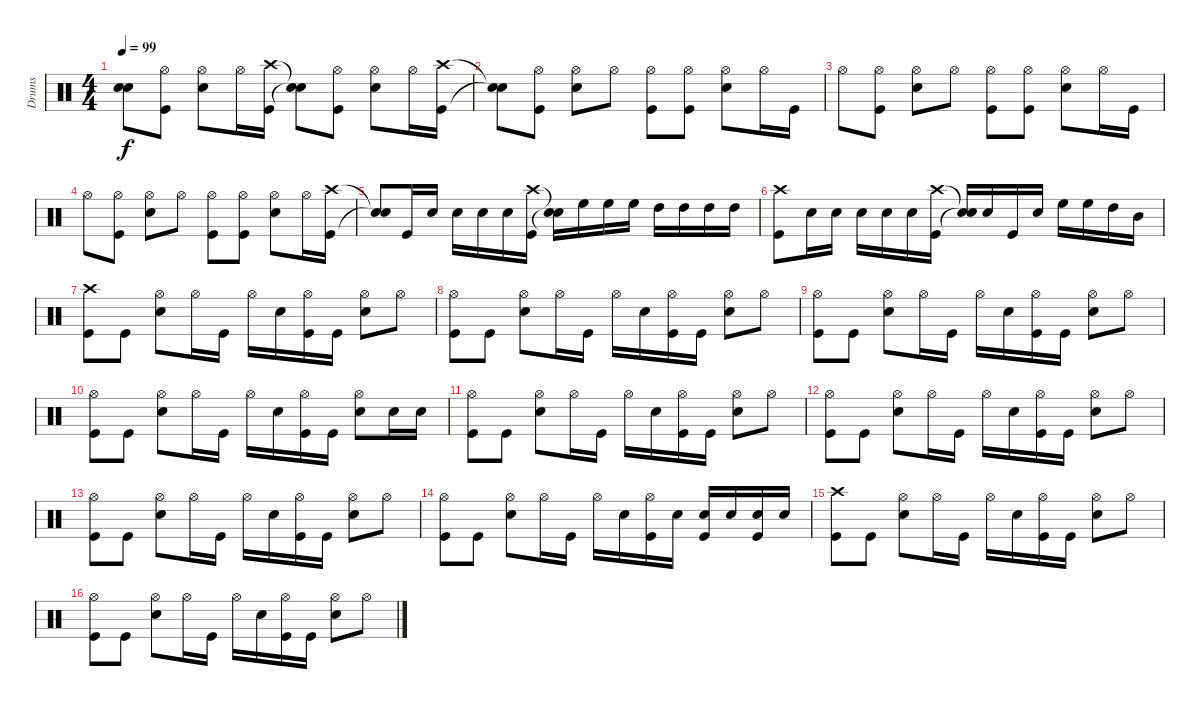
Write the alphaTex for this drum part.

\track ("Drums" "Drums") {instrument percussion}
\staff {score}
\articulation defaults
\ts (4 4)
\tempo 99
\clef neutral
\ks c
("Snare (hit)"{t} "Snare (hit)"{t}).8{dy f} ("Hi-Hat (open)" "Kick (hit)").8 ("Hi-Hat (open)" "Electric Snare (hit)").8 "Hi-Hat (open)".16 ("Crash high (hit)" "Kick (hit)").16 ("Snare (hit)"{t} "Snare (hit)"{t}).8 ("Hi-Hat (open)" "Kick (hit)").8 ("Hi-Hat (open)" "Electric Snare (hit)").8 "Hi-Hat (open)".16 ("Crash high (hit)" "Kick (hit)").16 |
("Snare (hit)"{t} "Snare (hit)"{t}).8 ("Hi-Hat (open)" "Kick (hit)").8 ("Hi-Hat (open)" "Electric Snare (hit)").8 "Hi-Hat (open)".8 ("Hi-Hat (open)" "Kick (hit)").8 ("Hi-Hat (open)" "Kick (hit)").8 ("Hi-Hat (open)" "Electric Snare (hit)").8 "Hi-Hat (open)".16 "Kick (hit)".16 |
"Hi-Hat (open)".8 ("Hi-Hat (open)" "Kick (hit)").8 ("Hi-Hat (open)" "Electric Snare (hit)").8 "Hi-Hat (open)".8 ("Hi-Hat (open)" "Kick (hit)").8 ("Hi-Hat (open)" "Kick (hit)").8 ("Hi-Hat (open)" "Electric Snare (hit)").8 "Hi-Hat (open)".16 "Kick (hit)".16 |
"Hi-Hat (open)".8 ("Hi-Hat (open)" "Kick (hit)").8 ("Hi-Hat (open)" "Electric Snare (hit)").8 "Hi-Hat (open)".8 ("Hi-Hat (open)" "Kick (hit)").8 ("Hi-Hat (open)" "Kick (hit)").8 ("Hi-Hat (open)" "Electric Snare (hit)").8 "Hi-Hat (open)".16 ("Crash high (hit)" "Kick (hit)").16 |
("Snare (hit)"{t} "Snare (hit)"{t}).8 "Kick (hit)".16 "Electric Snare (hit)".16 "Electric Snare (hit)".16 "Electric Snare (hit)".16 "Electric Snare (hit)".16 ("Crash high (hit)" "Kick (hit)").16 ("Snare (hit)"{t} "Snare (hit)"{t}).16 "High Floor Tom (hit)".16 "High Floor Tom (hit)".16 "High Floor Tom (hit)".16 "High Tom (hit)".16 "High Tom (hit)".16 "High Tom (hit)".16 "High Tom (hit)".16 |
("Crash high (hit)" "Kick (hit)").8 "Electric Snare (hit)".16 "Electric Snare (hit)".16 "Electric Snare (hit)".16 "Electric Snare (hit)".16 "Electric Snare (hit)".16 ("Crash high (hit)" "Kick (hit)").16 ("Snare (hit)"{t} "Snare (hit)"{t}).16 "Electric Snare (hit)".16 "Kick (hit)".16 "Electric Snare (hit)".16 "High Floor Tom (hit)".16 "High Floor Tom (hit)".16 "High Tom (hit)".16 "Mid Tom (hit)".16 |
("Crash high (hit)" "Kick (hit)").8 "Kick (hit)".8 ("Hi-Hat (open)" "Electric Snare (hit)").8 "Hi-Hat (open)".16 "Kick (hit)".16 "Hi-Hat (open)".16 "Electric Snare (hit)".16 ("Hi-Hat (open)" "Kick (hit)").16 "Kick (hit)".16 ("Hi-Hat (open)" "Electric Snare (hit)").8 "Hi-Hat (open)".8 |
("Hi-Hat (open)" "Kick (hit)").8 "Kick (hit)".8 ("Hi-Hat (open)" "Electric Snare (hit)").8 "Hi-Hat (open)".16 "Kick (hit)".16 "Hi-Hat (open)".16 "Electric Snare (hit)".16 ("Hi-Hat (open)" "Kick (hit)").16 "Kick (hit)".16 ("Hi-Hat (open)" "Electric Snare (hit)").8 "Hi-Hat (open)".8 |
("Hi-Hat (open)" "Kick (hit)").8 "Kick (hit)".8 ("Hi-Hat (open)" "Electric Snare (hit)").8 "Hi-Hat (open)".16 "Kick (hit)".16 "Hi-Hat (open)".16 "Electric Snare (hit)".16 ("Hi-Hat (open)" "Kick (hit)").16 "Kick (hit)".16 ("Hi-Hat (open)" "Electric Snare (hit)").8 "Hi-Hat (open)".8 |
("Hi-Hat (open)" "Kick (hit)").8 "Kick (hit)".8 ("Hi-Hat (open)" "Electric Snare (hit)").8 "Hi-Hat (open)".16 "Kick (hit)".16 "Hi-Hat (open)".16 "Electric Snare (hit)".16 ("Hi-Hat (open)" "Kick (hit)").16 "Kick (hit)".16 ("Hi-Hat (open)" "Electric Snare (hit)").8 "Electric Snare (hit)".16 "Electric Snare (hit)".16 |
("Hi-Hat (open)" "Kick (hit)").8 "Kick (hit)".8 ("Hi-Hat (open)" "Electric Snare (hit)").8 "Hi-Hat (open)".16 "Kick (hit)".16 "Hi-Hat (open)".16 "Electric Snare (hit)".16 ("Hi-Hat (open)" "Kick (hit)").16 "Kick (hit)".16 ("Hi-Hat (open)" "Electric Snare (hit)").8 "Hi-Hat (open)".8 |
("Hi-Hat (open)" "Kick (hit)").8 "Kick (hit)".8 ("Hi-Hat (open)" "Electric Snare (hit)").8 "Hi-Hat (open)".16 "Kick (hit)".16 "Hi-Hat (open)".16 "Electric Snare (hit)".16 ("Hi-Hat (open)" "Kick (hit)").16 "Kick (hit)".16 ("Hi-Hat (open)" "Electric Snare (hit)").8 "Hi-Hat (open)".8 |
("Hi-Hat (open)" "Kick (hit)").8 "Kick (hit)".8 ("Hi-Hat (open)" "Electric Snare (hit)").8 "Hi-Hat (open)".16 "Kick (hit)".16 "Hi-Hat (open)".16 "Electric Snare (hit)".16 ("Hi-Hat (open)" "Kick (hit)").16 "Kick (hit)".16 ("Hi-Hat (open)" "Electric Snare (hit)").8 "Hi-Hat (open)".8 |
("Hi-Hat (open)" "Kick (hit)").8 "Kick (hit)".8 ("Hi-Hat (open)" "Electric Snare (hit)").8 "Hi-Hat (open)".16 "Kick (hit)".16 "Hi-Hat (open)".16 "Electric Snare (hit)".16 ("Hi-Hat (open)" "Kick (hit)").16 "Electric Snare (hit)".16 ("Electric Snare (hit)" "Kick (hit)").16 "Electric Snare (hit)".16 ("Electric Snare (hit)" "Kick (hit)").16 "Electric Snare (hit)".16 |
("Crash high (hit)" "Kick (hit)").8 "Kick (hit)".8 ("Hi-Hat (open)" "Electric Snare (hit)").8 "Hi-Hat (open)".16 "Kick (hit)".16 "Hi-Hat (open)".16 "Electric Snare (hit)".16 ("Hi-Hat (open)" "Kick (hit)").16 "Kick (hit)".16 ("Hi-Hat (open)" "Electric Snare (hit)").8 "Hi-Hat (open)".8 |
("Hi-Hat (open)" "Kick (hit)").8 "Kick (hit)".8 ("Hi-Hat (open)" "Electric Snare (hit)").8 "Hi-Hat (open)".16 "Kick (hit)".16 "Hi-Hat (open)".16 "Electric Snare (hit)".16 ("Hi-Hat (open)" "Kick (hit)").16 "Kick (hit)".16 ("Hi-Hat (open)" "Electric Snare (hit)").8 "Hi-Hat (open)".8
